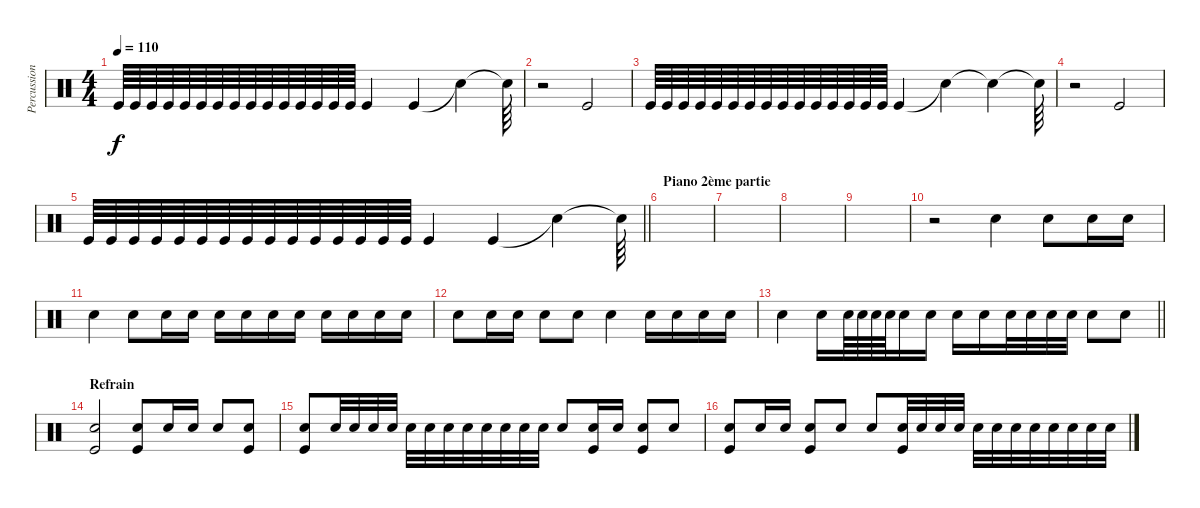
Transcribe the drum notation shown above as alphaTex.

\track ("Percussions" "Percussion") {instrument percussion}
\staff {score}
\articulation defaults
\ts (4 4)
\tempo 110
\clef neutral
\ks c "Kick (hit)".64{dy f volume 0} "Kick (hit)".64 "Kick (hit)".64 "Kick (hit)".64 "Kick (hit)".64{volume 2} "Kick (hit)".64 "Kick (hit)".64 "Kick (hit)".64 "Kick (hit)".64 "Kick (hit)".64{volume 5} "Kick (hit)".64 "Kick (hit)".64 "Kick (hit)".64 "Kick (hit)".64{volume 10} "Kick (hit)".64 "Kick (hit)".4{volume 13} "Kick (hit)".4{volume 13} "Snare (hit)"{t}.4 "Snare (hit)"{t}.64
|
r.2 "Kick (hit)".2 |
"Kick (hit)".64{volume 0} "Kick (hit)".64 "Kick (hit)".64 "Kick (hit)".64 "Kick (hit)".64{volume 2} "Kick (hit)".64 "Kick (hit)".64 "Kick (hit)".64 "Kick (hit)".64 "Kick (hit)".64{volume 5} "Kick (hit)".64 "Kick (hit)".64 "Kick (hit)".64 "Kick (hit)".64{volume 10} "Kick (hit)".64 "Kick (hit)".4{volume 13} "Snare (hit)"{t}.4 "Snare (hit)"{t}.4 "Snare (hit)"{t}.64 |
r.2 "Kick (hit)".2 |
\barLineRight lightlight "Kick (hit)".64{volume 0} "Kick (hit)".64 "Kick (hit)".64 "Kick (hit)".64 "Kick (hit)".64{volume 2} "Kick (hit)".64 "Kick (hit)".64 "Kick (hit)".64 "Kick (hit)".64 "Kick (hit)".64{volume 5} "Kick (hit)".64 "Kick (hit)".64 "Kick (hit)".64 "Kick (hit)".64{volume 10} "Kick (hit)".64 "Kick (hit)".4{volume 13} "Kick (hit)".4{volume 13} "Snare (hit)"{t}.4 "Snare (hit)"{t}.64
|
\section ("" "Piano 2ème partie")
|
|
|
|
r.2{volume 6} "Snare (hit) 2".4 "Snare (hit) 2".8 "Snare (hit) 2".16 "Snare (hit) 2".16 |
"Snare (hit) 2".4 "Snare (hit) 2".8 "Snare (hit) 2".16 "Snare (hit) 2".16 "Snare (hit) 2".16 "Snare (hit) 2".16 "Snare (hit) 2".16 "Snare (hit) 2".16 "Snare (hit) 2".16 "Snare (hit) 2".16 "Snare (hit) 2".16 "Snare (hit) 2".16 |
"Snare (hit) 2".8{volume 9} "Snare (hit) 2".16 "Snare (hit) 2".16 "Snare (hit) 2".8 "Snare (hit) 2".8 "Snare (hit) 2".4 "Snare (hit) 2".16 "Snare (hit) 2".16 "Snare (hit) 2".16 "Snare (hit) 2".16 |
\barLineRight lightlight "Snare (hit) 2".4 "Snare (hit) 2".16 "Snare (hit) 2".64 "Snare (hit) 2".64 "Snare (hit) 2".64 "Snare (hit) 2".64 "Snare (hit) 2".16 "Snare (hit) 2".16 "Snare (hit) 2".16{volume 13} "Snare (hit) 2".16 "Snare (hit) 2".32 "Snare (hit) 2".32 "Snare (hit) 2".32 "Snare (hit) 2".32 "Snare (hit) 2".8 "Snare (hit) 2".8
|
\section ("" "Refrain")
("Snare (hit) 2" "Kick (hit)").2{volume 10} ("Snare (hit) 2" "Kick (hit)").8 "Snare (hit) 2".16 "Snare (hit) 2".16 "Snare (hit) 2".8 ("Snare (hit) 2" "Kick (hit)").8 |
("Snare (hit) 2" "Kick (hit)").8 "Snare (hit) 2".32 "Snare (hit) 2".32 "Snare (hit) 2".32 "Snare (hit) 2".32 "Snare (hit) 2".32 "Snare (hit) 2".32 "Snare (hit) 2".32 "Snare (hit) 2".32 "Snare (hit) 2".32 "Snare (hit) 2".32 "Snare (hit) 2".32 "Snare (hit) 2".32 "Snare (hit) 2".8 ("Snare (hit) 2" "Kick (hit)").16 "Snare (hit) 2".16 ("Snare (hit) 2" "Kick (hit)").8 "Snare (hit) 2".8 |
("Snare (hit) 2" "Kick (hit)").8 "Snare (hit) 2".16 "Snare (hit) 2".16 ("Snare (hit) 2" "Kick (hit)").8 "Snare (hit) 2".8 "Snare (hit) 2".8 ("Snare (hit) 2" "Kick (hit)").32 "Snare (hit) 2".32 "Snare (hit) 2".32 "Snare (hit) 2".32 "Snare (hit) 2".32 "Snare (hit) 2".32 "Snare (hit) 2".32 "Snare (hit) 2".32 "Snare (hit) 2".32 "Snare (hit) 2".32 "Snare (hit) 2".32 "Snare (hit) 2".32
